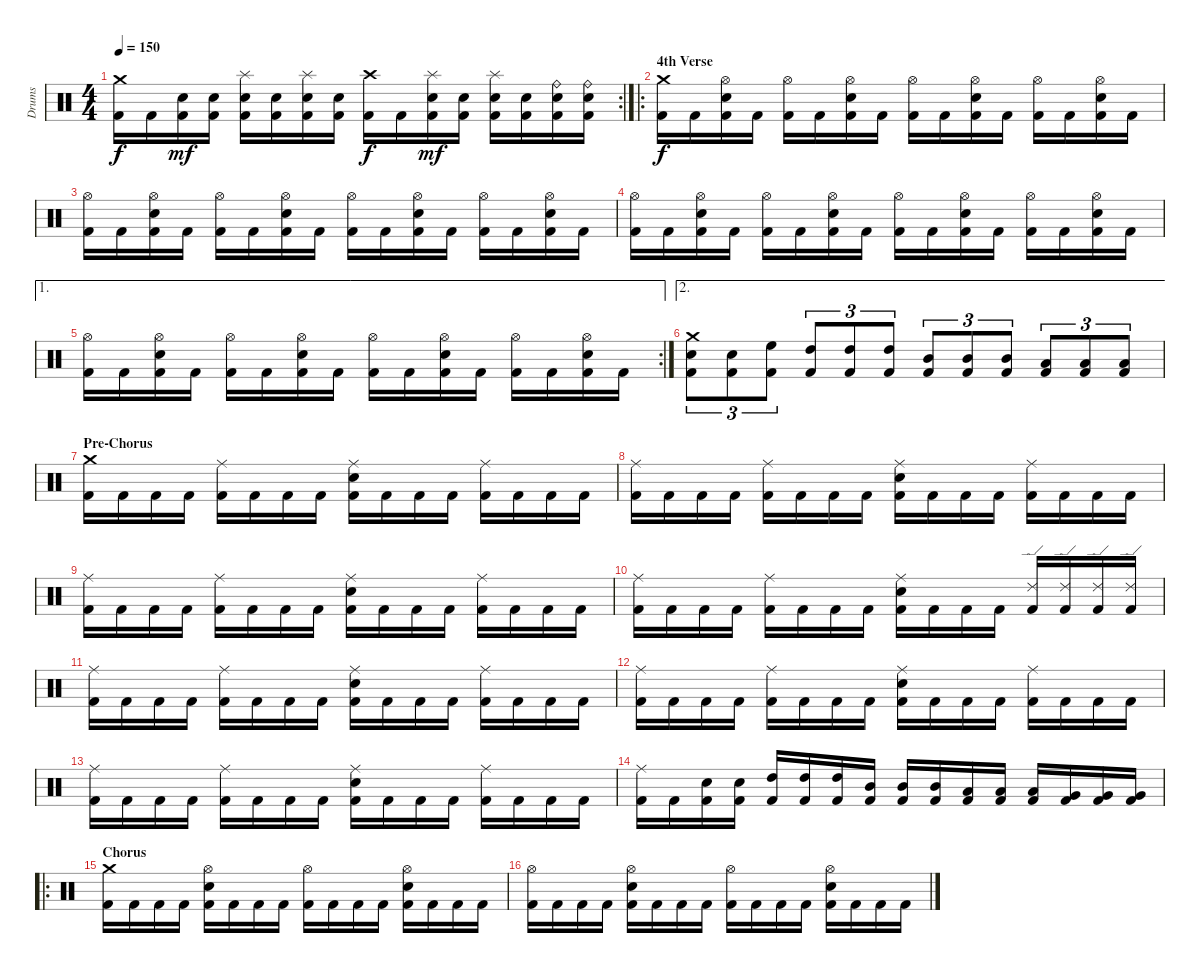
\track ("Drums" "Drums") {instrument percussion}
\staff {score}
\articulation defaults
\rc 2
\ts (4 4)
\tempo 150
\clef neutral
\ks c
("Kick (hit) 2" "Crash medium (hit)").16{dy f} "Kick (hit) 2".16 ("Kick (hit) 2" "Electric Snare (hit)").16{dy mf} ("Kick (hit) 2" "Electric Snare (hit)").16 ("Kick (hit) 2" "Electric Snare (hit)" "Splash (hit)").16 ("Kick (hit) 2" "Electric Snare (hit)").16 ("Kick (hit) 2" "Electric Snare (hit)" "Splash (hit)").16 ("Kick (hit) 2" "Electric Snare (hit)").16 ("Kick (hit) 2" "Crash high (hit)").16{dy f} "Kick (hit) 2".16 ("Kick (hit) 2" "Electric Snare (hit)" "Splash (hit)").16{dy mf} ("Kick (hit) 2" "Electric Snare (hit)").16 ("Kick (hit) 2" "Electric Snare (hit)" "Splash (hit)").16 ("Kick (hit) 2" "Electric Snare (hit)").16 ("Kick (hit) 2" "Electric Snare (hit)" "Ride (bell)").16 ("Kick (hit) 2" "Electric Snare (hit)" "Ride (bell)").16 |
\ro
\section ("" "4th Verse")
("Kick (hit) 2" "Crash medium (hit)").16{dy f} "Kick (hit) 2".16 ("Kick (hit) 2" "Electric Snare (hit)" "Hi-Hat (open)").16 "Kick (hit) 2".16 ("Kick (hit) 2" "Hi-Hat (open)").16 "Kick (hit) 2".16 ("Kick (hit) 2" "Electric Snare (hit)" "Hi-Hat (open)").16 "Kick (hit) 2".16 ("Kick (hit) 2" "Hi-Hat (open)").16 "Kick (hit) 2".16 ("Kick (hit) 2" "Electric Snare (hit)" "Hi-Hat (open)").16 "Kick (hit) 2".16 ("Kick (hit) 2" "Hi-Hat (open)").16 "Kick (hit) 2".16 ("Kick (hit) 2" "Electric Snare (hit)" "Hi-Hat (open)").16 "Kick (hit) 2".16 |
("Kick (hit) 2" "Hi-Hat (open)").16 "Kick (hit) 2".16 ("Kick (hit) 2" "Electric Snare (hit)" "Hi-Hat (open)").16 "Kick (hit) 2".16 ("Kick (hit) 2" "Hi-Hat (open)").16 "Kick (hit) 2".16 ("Kick (hit) 2" "Electric Snare (hit)" "Hi-Hat (open)").16 "Kick (hit) 2".16 ("Kick (hit) 2" "Hi-Hat (open)").16 "Kick (hit) 2".16 ("Kick (hit) 2" "Electric Snare (hit)" "Hi-Hat (open)").16 "Kick (hit) 2".16 ("Kick (hit) 2" "Hi-Hat (open)").16 "Kick (hit) 2".16 ("Kick (hit) 2" "Electric Snare (hit)" "Hi-Hat (open)").16 "Kick (hit) 2".16 |
("Kick (hit) 2" "Hi-Hat (open)").16 "Kick (hit) 2".16 ("Kick (hit) 2" "Electric Snare (hit)" "Hi-Hat (open)").16 "Kick (hit) 2".16 ("Kick (hit) 2" "Hi-Hat (open)").16 "Kick (hit) 2".16 ("Kick (hit) 2" "Electric Snare (hit)" "Hi-Hat (open)").16 "Kick (hit) 2".16 ("Kick (hit) 2" "Hi-Hat (open)").16 "Kick (hit) 2".16 ("Kick (hit) 2" "Electric Snare (hit)" "Hi-Hat (open)").16 "Kick (hit) 2".16 ("Kick (hit) 2" "Hi-Hat (open)").16 "Kick (hit) 2".16 ("Kick (hit) 2" "Electric Snare (hit)" "Hi-Hat (open)").16 "Kick (hit) 2".16 |
\ae 1
\rc 2
("Kick (hit) 2" "Hi-Hat (open)").16 "Kick (hit) 2".16 ("Kick (hit) 2" "Electric Snare (hit)" "Hi-Hat (open)").16 "Kick (hit) 2".16 ("Kick (hit) 2" "Hi-Hat (open)").16 "Kick (hit) 2".16 ("Kick (hit) 2" "Electric Snare (hit)" "Hi-Hat (open)").16 "Kick (hit) 2".16 ("Kick (hit) 2" "Hi-Hat (open)").16 "Kick (hit) 2".16 ("Kick (hit) 2" "Electric Snare (hit)" "Hi-Hat (open)").16 "Kick (hit) 2".16 ("Kick (hit) 2" "Hi-Hat (open)").16 "Kick (hit) 2".16 ("Kick (hit) 2" "Electric Snare (hit)" "Hi-Hat (open)").16 "Kick (hit) 2".16 |
\ae 2
("Kick (hit) 2" "Electric Snare (hit)" "Crash medium (hit)").8{tu (3 2)} ("Kick (hit) 2" "Electric Snare (hit)").8{tu (3 2)} ("Kick (hit) 2" "High Floor Tom (hit)").8{tu (3 2)} ("Kick (hit) 2" "High Tom (hit)").8{tu (3 2)} ("Kick (hit) 2" "High Tom (hit)").8{tu (3 2)} ("Kick (hit) 2" "High Tom (hit)").8{tu (3 2)} ("Kick (hit) 2" "Mid Tom (hit)").8{tu (3 2)} ("Kick (hit) 2" "Mid Tom (hit)").8{tu (3 2)} ("Kick (hit) 2" "Mid Tom (hit)").8{tu (3 2)} ("Kick (hit) 2" "Low Tom (hit)").8{tu (3 2)} ("Kick (hit) 2" "Low Tom (hit)").8{tu (3 2)} ("Kick (hit) 2" "Low Tom (hit)").8{tu (3 2)} |
\section ("" "Pre-Chorus")
("Kick (hit) 2" "Crash medium (hit)").16 "Kick (hit) 2".16 "Kick (hit) 2".16 "Kick (hit) 2".16 ("Kick (hit) 2" "Ride (middle)").16 "Kick (hit) 2".16 "Kick (hit) 2".16 "Kick (hit) 2".16 ("Kick (hit) 2" "Electric Snare (hit)" "Ride (middle)").16 "Kick (hit) 2".16 "Kick (hit) 2".16 "Kick (hit) 2".16 ("Kick (hit) 2" "Ride (middle)").16 "Kick (hit) 2".16 "Kick (hit) 2".16 "Kick (hit) 2".16 |
("Kick (hit) 2" "Ride (middle)").16 "Kick (hit) 2".16 "Kick (hit) 2".16 "Kick (hit) 2".16 ("Kick (hit) 2" "Ride (middle)").16 "Kick (hit) 2".16 "Kick (hit) 2".16 "Kick (hit) 2".16 ("Kick (hit) 2" "Electric Snare (hit)" "Ride (middle)").16 "Kick (hit) 2".16 "Kick (hit) 2".16 "Kick (hit) 2".16 ("Kick (hit) 2" "Ride (middle)").16 "Kick (hit) 2".16 "Kick (hit) 2".16 "Kick (hit) 2".16 |
("Kick (hit) 2" "Ride (middle)").16 "Kick (hit) 2".16 "Kick (hit) 2".16 "Kick (hit) 2".16 ("Kick (hit) 2" "Ride (middle)").16 "Kick (hit) 2".16 "Kick (hit) 2".16 "Kick (hit) 2".16 ("Kick (hit) 2" "Electric Snare (hit)" "Ride (middle)").16 "Kick (hit) 2".16 "Kick (hit) 2".16 "Kick (hit) 2".16 ("Kick (hit) 2" "Ride (middle)").16 "Kick (hit) 2".16 "Kick (hit) 2".16 "Kick (hit) 2".16 |
("Kick (hit) 2" "Ride (middle)").16 "Kick (hit) 2".16 "Kick (hit) 2".16 "Kick (hit) 2".16 ("Kick (hit) 2" "Ride (middle)").16 "Kick (hit) 2".16 "Kick (hit) 2".16 "Kick (hit) 2".16 ("Kick (hit) 2" "Electric Snare (hit)" "Ride (middle)").16 "Kick (hit) 2".16 "Kick (hit) 2".16 "Kick (hit) 2".16 ("Kick (hit) 2" "Ride (edge) 2").16 ("Kick (hit) 2" "Ride (edge) 2").16 ("Kick (hit) 2" "Ride (edge) 2").16 ("Kick (hit) 2" "Ride (edge) 2").16 |
("Kick (hit) 2" "Ride (middle)").16 "Kick (hit) 2".16 "Kick (hit) 2".16 "Kick (hit) 2".16 ("Kick (hit) 2" "Ride (middle)").16 "Kick (hit) 2".16 "Kick (hit) 2".16 "Kick (hit) 2".16 ("Kick (hit) 2" "Electric Snare (hit)" "Ride (middle)").16 "Kick (hit) 2".16 "Kick (hit) 2".16 "Kick (hit) 2".16 ("Kick (hit) 2" "Ride (middle)").16 "Kick (hit) 2".16 "Kick (hit) 2".16 "Kick (hit) 2".16 |
("Kick (hit) 2" "Ride (middle)").16 "Kick (hit) 2".16 "Kick (hit) 2".16 "Kick (hit) 2".16 ("Kick (hit) 2" "Ride (middle)").16 "Kick (hit) 2".16 "Kick (hit) 2".16 "Kick (hit) 2".16 ("Kick (hit) 2" "Electric Snare (hit)" "Ride (middle)").16 "Kick (hit) 2".16 "Kick (hit) 2".16 "Kick (hit) 2".16 ("Kick (hit) 2" "Ride (middle)").16 "Kick (hit) 2".16 "Kick (hit) 2".16 "Kick (hit) 2".16 |
("Kick (hit) 2" "Ride (middle)").16 "Kick (hit) 2".16 "Kick (hit) 2".16 "Kick (hit) 2".16 ("Kick (hit) 2" "Ride (middle)").16 "Kick (hit) 2".16 "Kick (hit) 2".16 "Kick (hit) 2".16 ("Kick (hit) 2" "Electric Snare (hit)" "Ride (middle)").16 "Kick (hit) 2".16 "Kick (hit) 2".16 "Kick (hit) 2".16 ("Kick (hit) 2" "Ride (middle)").16 "Kick (hit) 2".16 "Kick (hit) 2".16 "Kick (hit) 2".16 |
("Kick (hit) 2" "Ride (middle)").16 "Kick (hit) 2".16 ("Kick (hit) 2" "Electric Snare (hit)").16 ("Kick (hit) 2" "Electric Snare (hit)").16 ("Kick (hit) 2" "High Tom (hit)").16 ("Kick (hit) 2" "High Tom (hit)").16 ("Kick (hit) 2" "High Tom (hit)").16 ("Kick (hit) 2" "Mid Tom (hit)").16 ("Kick (hit) 2" "Mid Tom (hit)").16 ("Kick (hit) 2" "Mid Tom (hit)").16 ("Kick (hit) 2" "Low Tom (hit)").16 ("Kick (hit) 2" "Low Tom (hit)").16 ("Kick (hit) 2" "Low Tom (hit)").16 ("Kick (hit) 2" "Very Low Tom (hit)").16 ("Kick (hit) 2" "Very Low Tom (hit)").16 ("Kick (hit) 2" "Very Low Tom (hit)").16 |
\ro
\section ("" "Chorus")
("Kick (hit) 2" "Crash medium (hit)").16 "Kick (hit) 2".16 "Kick (hit) 2".16 "Kick (hit) 2".16 ("Kick (hit) 2" "Electric Snare (hit)" "Hi-Hat (open)").16 "Kick (hit) 2".16 "Kick (hit) 2".16 "Kick (hit) 2".16 ("Kick (hit) 2" "Hi-Hat (open)").16 "Kick (hit) 2".16 "Kick (hit) 2".16 "Kick (hit) 2".16 ("Kick (hit) 2" "Electric Snare (hit)" "Hi-Hat (open)").16 "Kick (hit) 2".16 "Kick (hit) 2".16 "Kick (hit) 2".16 |
("Kick (hit) 2" "Hi-Hat (open)").16 "Kick (hit) 2".16 "Kick (hit) 2".16 "Kick (hit) 2".16 ("Kick (hit) 2" "Electric Snare (hit)" "Hi-Hat (open)").16 "Kick (hit) 2".16 "Kick (hit) 2".16 "Kick (hit) 2".16 ("Kick (hit) 2" "Hi-Hat (open)").16 "Kick (hit) 2".16 "Kick (hit) 2".16 "Kick (hit) 2".16 ("Kick (hit) 2" "Electric Snare (hit)" "Hi-Hat (open)").16 "Kick (hit) 2".16 "Kick (hit) 2".16 "Kick (hit) 2".16
